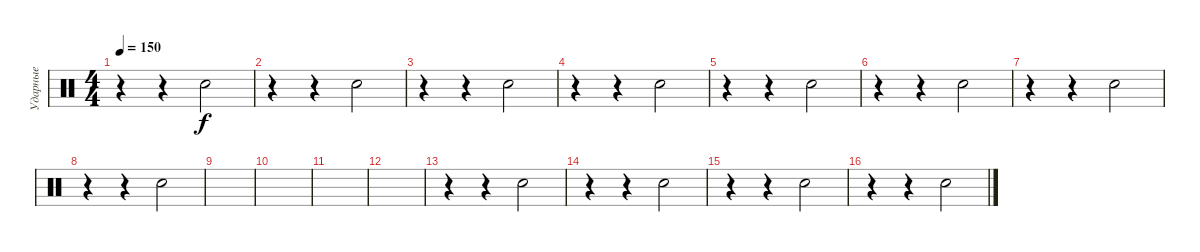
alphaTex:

\track ("Ударные" "Ударные") {instrument percussion}
\staff {score}
\articulation defaults
\ts (4 4)
\tempo 150
\clef neutral
\ks c
r.4{dy f} r.4 "Hand Clap (hit)".2 |
r.4 r.4 "Hand Clap (hit)".2 |
r.4 r.4 "Hand Clap (hit)".2 |
r.4 r.4 "Hand Clap (hit)".2 |
r.4 r.4 "Hand Clap (hit)".2 |
r.4 r.4 "Hand Clap (hit)".2 |
r.4 r.4 "Hand Clap (hit)".2 |
r.4 r.4 "Hand Clap (hit)".2 |
|
|
|
|
r.4 r.4 "Hand Clap (hit)".2 |
r.4 r.4 "Hand Clap (hit)".2 |
r.4 r.4 "Hand Clap (hit)".2 |
r.4 r.4 "Hand Clap (hit)".2
